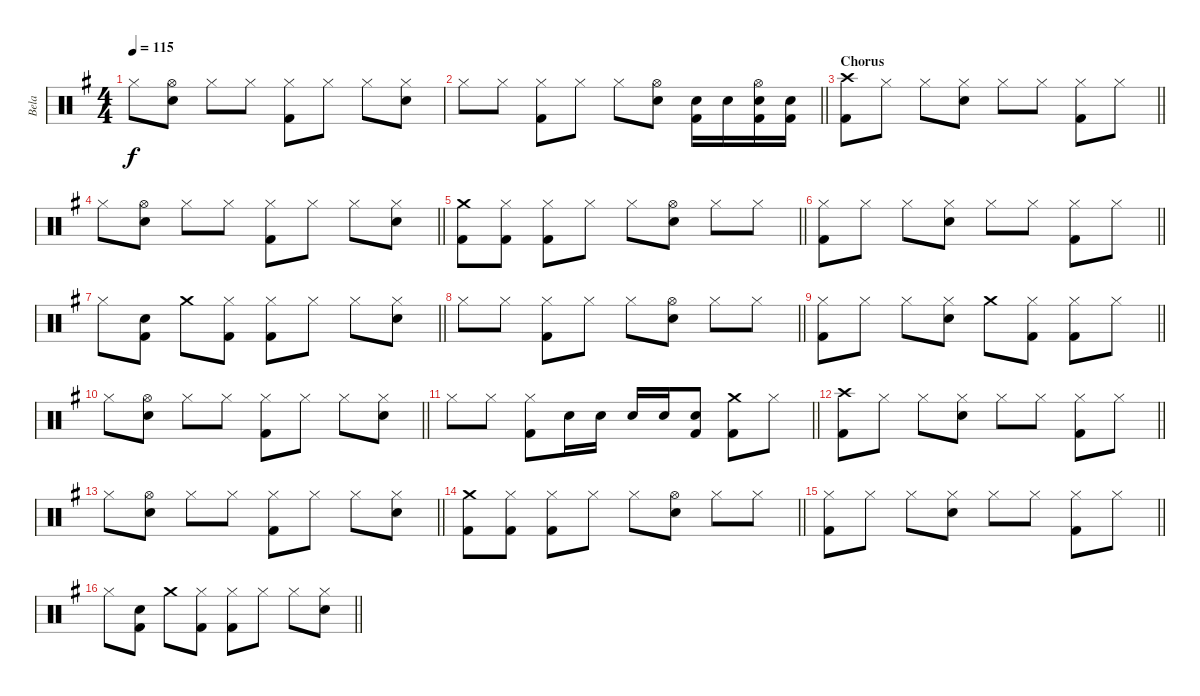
\track ("Bela" "Bela") {instrument percussion}
\staff {score}
\articulation defaults
\ts (4 4)
\tempo 115
\clef neutral
\ks eminor "Hi-Hat (closed)".8{dy f}
("Hi-Hat (open)" "Electric Snare (hit)").8 "Hi-Hat (closed)".8 "Hi-Hat (closed)".8 ("Hi-Hat (closed)" "Kick (hit) 2").8 "Hi-Hat (closed)".8 "Hi-Hat (closed)".8 ("Electric Snare (hit)" "Hi-Hat (closed)").8 |
\barLineRight lightlight "Hi-Hat (closed)".8 "Hi-Hat (closed)".8
("Hi-Hat (closed)" "Kick (hit) 2").8 "Hi-Hat (closed)".8 "Hi-Hat (closed)".8 ("Hi-Hat (open)" "Electric Snare (hit)").8 ("Electric Snare (hit)" "Kick (hit) 2").16 "Electric Snare (hit)".16 ("Hi-Hat (open)" "Electric Snare (hit)" "Kick (hit) 2").16 ("Electric Snare (hit)" "Kick (hit) 2").16 |
\section ("" "Chorus")
\barLineRight lightlight
("Crash high (hit)" "Kick (hit) 2").8 "Hi-Hat (closed)".8 "Hi-Hat (closed)".8 ("Hi-Hat (closed)" "Electric Snare (hit)").8 "Hi-Hat (closed)".8 "Hi-Hat (closed)".8 ("Hi-Hat (closed)" "Kick (hit) 2").8 "Hi-Hat (closed)".8 |
\barLineRight lightlight "Hi-Hat (closed)".8
("Hi-Hat (open)" "Electric Snare (hit)").8 "Hi-Hat (closed)".8 "Hi-Hat (closed)".8 ("Hi-Hat (closed)" "Kick (hit) 2").8 "Hi-Hat (closed)".8 "Hi-Hat (closed)".8 ("Hi-Hat (closed)" "Electric Snare (hit)").8 |
\barLineRight lightlight
("Crash medium (hit)" "Kick (hit) 2").8 ("Hi-Hat (closed)" "Kick (hit) 2").8 ("Hi-Hat (closed)" "Kick (hit) 2").8 "Hi-Hat (closed)".8 "Hi-Hat (closed)".8 ("Hi-Hat (open)" "Electric Snare (hit)").8 "Hi-Hat (closed)".8 "Hi-Hat (closed)".8 |
\barLineRight lightlight
("Hi-Hat (closed)" "Kick (hit) 2").8 "Hi-Hat (closed)".8 "Hi-Hat (closed)".8 ("Hi-Hat (closed)" "Electric Snare (hit)").8 "Hi-Hat (closed)".8 "Hi-Hat (closed)".8 ("Hi-Hat (closed)" "Kick (hit) 2").8 "Hi-Hat (closed)".8 |
\barLineRight lightlight "Hi-Hat (closed)".8
("Electric Snare (hit)" "Kick (hit) 2").8 "Crash medium (hit)".8 ("Hi-Hat (closed)" "Kick (hit) 2").8 ("Hi-Hat (closed)" "Kick (hit) 2").8 "Hi-Hat (closed)".8 "Hi-Hat (closed)".8 ("Electric Snare (hit)" "Hi-Hat (closed)").8 |
\barLineRight lightlight "Hi-Hat (closed)".8 "Hi-Hat (closed)".8
("Hi-Hat (closed)" "Kick (hit) 2").8 "Hi-Hat (closed)".8 "Hi-Hat (closed)".8 ("Hi-Hat (open)" "Electric Snare (hit)").8 "Hi-Hat (closed)".8 "Hi-Hat (closed)".8 |
\barLineRight lightlight
("Hi-Hat (closed)" "Kick (hit) 2").8 "Hi-Hat (closed)".8 "Hi-Hat (closed)".8 ("Hi-Hat (closed)" "Electric Snare (hit)").8 "Crash medium (hit)".8 ("Hi-Hat (closed)" "Kick (hit) 2").8 ("Hi-Hat (closed)" "Kick (hit) 2").8 "Hi-Hat (closed)".8 |
\barLineRight lightlight "Hi-Hat (closed)".8
("Hi-Hat (open)" "Electric Snare (hit)").8 "Hi-Hat (closed)".8 "Hi-Hat (closed)".8 ("Hi-Hat (closed)" "Kick (hit) 2").8 "Hi-Hat (closed)".8 "Hi-Hat (closed)".8 ("Electric Snare (hit)" "Hi-Hat (closed)").8 |
\barLineRight lightlight "Hi-Hat (closed)".8 "Hi-Hat (closed)".8
("Hi-Hat (closed)" "Kick (hit) 2").8 "Electric Snare (hit)".16 "Electric Snare (hit)".16 "Electric Snare (hit)".16 "Electric Snare (hit)".16 ("Electric Snare (hit)" "Kick (hit) 2").8 ("Crash medium (hit)" "Kick (hit) 2").8 "Hi-Hat (closed)".8 |
\barLineRight lightlight
("Crash high (hit)" "Kick (hit) 2").8 "Hi-Hat (closed)".8 "Hi-Hat (closed)".8 ("Hi-Hat (closed)" "Electric Snare (hit)").8 "Hi-Hat (closed)".8 "Hi-Hat (closed)".8 ("Hi-Hat (closed)" "Kick (hit) 2").8 "Hi-Hat (closed)".8 |
\barLineRight lightlight "Hi-Hat (closed)".8
("Hi-Hat (open)" "Electric Snare (hit)").8 "Hi-Hat (closed)".8 "Hi-Hat (closed)".8 ("Hi-Hat (closed)" "Kick (hit) 2").8 "Hi-Hat (closed)".8 "Hi-Hat (closed)".8 ("Hi-Hat (closed)" "Electric Snare (hit)").8 |
\barLineRight lightlight
("Crash medium (hit)" "Kick (hit) 2").8 ("Hi-Hat (closed)" "Kick (hit) 2").8 ("Hi-Hat (closed)" "Kick (hit) 2").8 "Hi-Hat (closed)".8 "Hi-Hat (closed)".8 ("Hi-Hat (open)" "Electric Snare (hit)").8 "Hi-Hat (closed)".8 "Hi-Hat (closed)".8 |
\barLineRight lightlight
("Hi-Hat (closed)" "Kick (hit) 2").8 "Hi-Hat (closed)".8 "Hi-Hat (closed)".8 ("Hi-Hat (closed)" "Electric Snare (hit)").8 "Hi-Hat (closed)".8 "Hi-Hat (closed)".8 ("Hi-Hat (closed)" "Kick (hit) 2").8 "Hi-Hat (closed)".8 |
\barLineRight lightlight "Hi-Hat (closed)".8
("Electric Snare (hit)" "Kick (hit) 2").8 "Crash medium (hit)".8 ("Hi-Hat (closed)" "Kick (hit) 2").8 ("Hi-Hat (closed)" "Kick (hit) 2").8 "Hi-Hat (closed)".8 "Hi-Hat (closed)".8 ("Electric Snare (hit)" "Hi-Hat (closed)").8
